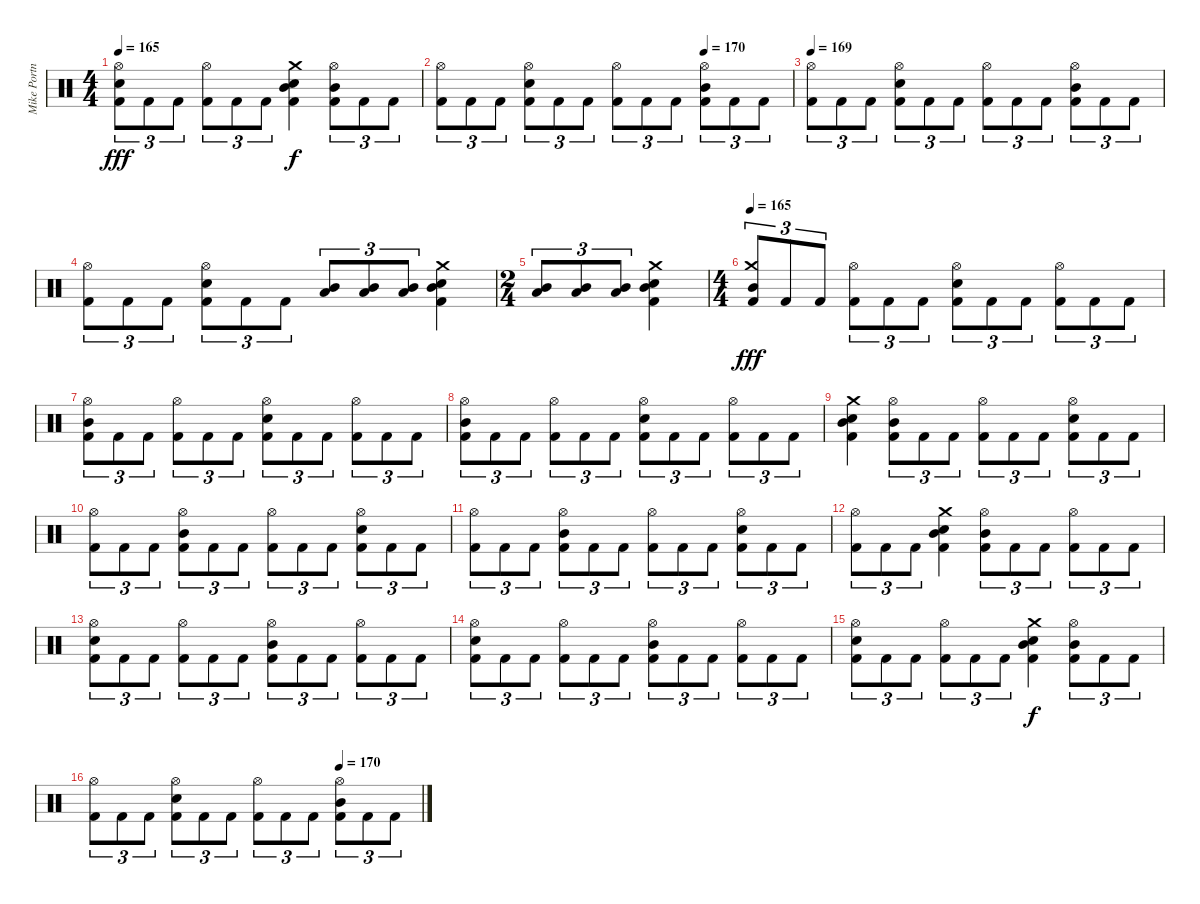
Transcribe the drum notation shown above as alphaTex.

\track ("Mike Portnoy" "Mike Portn") {instrument percussion}
\staff {score}
\articulation defaults
\ts (4 4)
\tempo 165
\clef neutral
\ks c
("Hi-Hat (open)" "Electric Snare (hit)" "Kick (hit) 2").8{tu (3 2) dy fff} "Kick (hit) 2".8{tu (3 2)} "Kick (hit) 2".8{tu (3 2)} ("Hi-Hat (open)" "Kick (hit) 2").8{tu (3 2)} "Kick (hit) 2".8{tu (3 2)} "Kick (hit) 2".8{tu (3 2)} ("Crash medium (hit)" "Mid Tom (hit)" "Electric Snare (hit)" "Kick (hit) 2").4{dy f} ("Hi-Hat (open)" "Mid Tom (hit)" "Kick (hit) 2").8{tu (3 2)} "Kick (hit) 2".8{tu (3 2)} "Kick (hit) 2".8{tu (3 2)} |
\tempo (170 0.75)
("Hi-Hat (open)" "Kick (hit) 2").8{tu (3 2)} "Kick (hit) 2".8{tu (3 2)} "Kick (hit) 2".8{tu (3 2)} ("Hi-Hat (open)" "Electric Snare (hit)" "Kick (hit) 2").8{tu (3 2)} "Kick (hit) 2".8{tu (3 2)} "Kick (hit) 2".8{tu (3 2)} ("Hi-Hat (open)" "Kick (hit) 2").8{tu (3 2)} "Kick (hit) 2".8{tu (3 2)} "Kick (hit) 2".8{tu (3 2)} ("Hi-Hat (open)" "Mid Tom (hit)" "Kick (hit) 2").8{tu (3 2)} "Kick (hit) 2".8{tu (3 2)} "Kick (hit) 2".8{tu (3 2)} |
\tempo 155
\tempo 169
("Hi-Hat (open)" "Kick (hit) 2").8{tu (3 2)} "Kick (hit) 2".8{tu (3 2)} "Kick (hit) 2".8{tu (3 2)} ("Hi-Hat (open)" "Electric Snare (hit)" "Kick (hit) 2").8{tu (3 2)} "Kick (hit) 2".8{tu (3 2)} "Kick (hit) 2".8{tu (3 2)} ("Hi-Hat (open)" "Kick (hit) 2").8{tu (3 2)} "Kick (hit) 2".8{tu (3 2)} "Kick (hit) 2".8{tu (3 2)} ("Hi-Hat (open)" "Mid Tom (hit)" "Kick (hit) 2").8{tu (3 2)} "Kick (hit) 2".8{tu (3 2)} "Kick (hit) 2".8{tu (3 2)} |
("Hi-Hat (open)" "Kick (hit) 2").8{tu (3 2)} "Kick (hit) 2".8{tu (3 2)} "Kick (hit) 2".8{tu (3 2)} ("Hi-Hat (open)" "Electric Snare (hit)" "Kick (hit) 2").8{tu (3 2)} "Kick (hit) 2".8{tu (3 2)} "Kick (hit) 2".8{tu (3 2)} ("Mid Tom (hit)" "Low Tom (hit)").8{tu (3 2)} ("Mid Tom (hit)" "Low Tom (hit)").8{tu (3 2)} ("Mid Tom (hit)" "Low Tom (hit)").8{tu (3 2)} ("Crash medium (hit)" "Mid Tom (hit)" "Electric Snare (hit)" "Kick (hit) 2").4 |
\ts (2 4)
("Mid Tom (hit)" "Low Tom (hit)").8{tu (3 2)} ("Mid Tom (hit)" "Low Tom (hit)").8{tu (3 2)} ("Mid Tom (hit)" "Low Tom (hit)").8{tu (3 2)} ("Crash medium (hit)" "Mid Tom (hit)" "Electric Snare (hit)" "Kick (hit) 2").4 |
\ts (4 4)
\tempo 165
("Crash medium (hit)" "Mid Tom (hit)" "Kick (hit) 2").8{tu (3 2) dy fff} "Kick (hit) 2".8{tu (3 2)} "Kick (hit) 2".8{tu (3 2)} ("Hi-Hat (open)" "Kick (hit) 2").8{tu (3 2)} "Kick (hit) 2".8{tu (3 2)} "Kick (hit) 2".8{tu (3 2)} ("Hi-Hat (open)" "Electric Snare (hit)" "Kick (hit) 2").8{tu (3 2)} "Kick (hit) 2".8{tu (3 2)} "Kick (hit) 2".8{tu (3 2)} ("Hi-Hat (open)" "Kick (hit) 2").8{tu (3 2)} "Kick (hit) 2".8{tu (3 2)} "Kick (hit) 2".8{tu (3 2)} |
("Hi-Hat (open)" "Mid Tom (hit)" "Kick (hit) 2").8{tu (3 2)} "Kick (hit) 2".8{tu (3 2)} "Kick (hit) 2".8{tu (3 2)} ("Hi-Hat (open)" "Kick (hit) 2").8{tu (3 2)} "Kick (hit) 2".8{tu (3 2)} "Kick (hit) 2".8{tu (3 2)} ("Hi-Hat (open)" "Electric Snare (hit)" "Kick (hit) 2").8{tu (3 2)} "Kick (hit) 2".8{tu (3 2)} "Kick (hit) 2".8{tu (3 2)} ("Hi-Hat (open)" "Kick (hit) 2").8{tu (3 2)} "Kick (hit) 2".8{tu (3 2)} "Kick (hit) 2".8{tu (3 2)} |
("Hi-Hat (open)" "Mid Tom (hit)" "Kick (hit) 2").8{tu (3 2)} "Kick (hit) 2".8{tu (3 2)} "Kick (hit) 2".8{tu (3 2)} ("Hi-Hat (open)" "Kick (hit) 2").8{tu (3 2)} "Kick (hit) 2".8{tu (3 2)} "Kick (hit) 2".8{tu (3 2)} ("Hi-Hat (open)" "Electric Snare (hit)" "Kick (hit) 2").8{tu (3 2)} "Kick (hit) 2".8{tu (3 2)} "Kick (hit) 2".8{tu (3 2)} ("Hi-Hat (open)" "Kick (hit) 2").8{tu (3 2)} "Kick (hit) 2".8{tu (3 2)} "Kick (hit) 2".8{tu (3 2)} |
("Crash medium (hit)" "Mid Tom (hit)" "Electric Snare (hit)" "Kick (hit) 2").4 ("Hi-Hat (open)" "Mid Tom (hit)" "Kick (hit) 2").8{tu (3 2)} "Kick (hit) 2".8{tu (3 2)} "Kick (hit) 2".8{tu (3 2)} ("Hi-Hat (open)" "Kick (hit) 2").8{tu (3 2)} "Kick (hit) 2".8{tu (3 2)} "Kick (hit) 2".8{tu (3 2)} ("Hi-Hat (open)" "Electric Snare (hit)" "Kick (hit) 2").8{tu (3 2)} "Kick (hit) 2".8{tu (3 2)} "Kick (hit) 2".8{tu (3 2)} |
("Hi-Hat (open)" "Kick (hit) 2").8{tu (3 2)} "Kick (hit) 2".8{tu (3 2)} "Kick (hit) 2".8{tu (3 2)} ("Hi-Hat (open)" "Mid Tom (hit)" "Kick (hit) 2").8{tu (3 2)} "Kick (hit) 2".8{tu (3 2)} "Kick (hit) 2".8{tu (3 2)} ("Hi-Hat (open)" "Kick (hit) 2").8{tu (3 2)} "Kick (hit) 2".8{tu (3 2)} "Kick (hit) 2".8{tu (3 2)} ("Hi-Hat (open)" "Electric Snare (hit)" "Kick (hit) 2").8{tu (3 2)} "Kick (hit) 2".8{tu (3 2)} "Kick (hit) 2".8{tu (3 2)} |
("Hi-Hat (open)" "Kick (hit) 2").8{tu (3 2)} "Kick (hit) 2".8{tu (3 2)} "Kick (hit) 2".8{tu (3 2)} ("Hi-Hat (open)" "Mid Tom (hit)" "Kick (hit) 2").8{tu (3 2)} "Kick (hit) 2".8{tu (3 2)} "Kick (hit) 2".8{tu (3 2)} ("Hi-Hat (open)" "Kick (hit) 2").8{tu (3 2)} "Kick (hit) 2".8{tu (3 2)} "Kick (hit) 2".8{tu (3 2)} ("Hi-Hat (open)" "Electric Snare (hit)" "Kick (hit) 2").8{tu (3 2)} "Kick (hit) 2".8{tu (3 2)} "Kick (hit) 2".8{tu (3 2)} |
("Hi-Hat (open)" "Kick (hit) 2").8{tu (3 2)} "Kick (hit) 2".8{tu (3 2)} "Kick (hit) 2".8{tu (3 2)} ("Crash medium (hit)" "Mid Tom (hit)" "Electric Snare (hit)" "Kick (hit) 2").4 ("Hi-Hat (open)" "Mid Tom (hit)" "Kick (hit) 2").8{tu (3 2)} "Kick (hit) 2".8{tu (3 2)} "Kick (hit) 2".8{tu (3 2)} ("Hi-Hat (open)" "Kick (hit) 2").8{tu (3 2)} "Kick (hit) 2".8{tu (3 2)} "Kick (hit) 2".8{tu (3 2)} |
("Hi-Hat (open)" "Electric Snare (hit)" "Kick (hit) 2").8{tu (3 2)} "Kick (hit) 2".8{tu (3 2)} "Kick (hit) 2".8{tu (3 2)} ("Hi-Hat (open)" "Kick (hit) 2").8{tu (3 2)} "Kick (hit) 2".8{tu (3 2)} "Kick (hit) 2".8{tu (3 2)} ("Hi-Hat (open)" "Mid Tom (hit)" "Kick (hit) 2").8{tu (3 2)} "Kick (hit) 2".8{tu (3 2)} "Kick (hit) 2".8{tu (3 2)} ("Hi-Hat (open)" "Kick (hit) 2").8{tu (3 2)} "Kick (hit) 2".8{tu (3 2)} "Kick (hit) 2".8{tu (3 2)} |
("Hi-Hat (open)" "Electric Snare (hit)" "Kick (hit) 2").8{tu (3 2)} "Kick (hit) 2".8{tu (3 2)} "Kick (hit) 2".8{tu (3 2)} ("Hi-Hat (open)" "Kick (hit) 2").8{tu (3 2)} "Kick (hit) 2".8{tu (3 2)} "Kick (hit) 2".8{tu (3 2)} ("Hi-Hat (open)" "Mid Tom (hit)" "Kick (hit) 2").8{tu (3 2)} "Kick (hit) 2".8{tu (3 2)} "Kick (hit) 2".8{tu (3 2)} ("Hi-Hat (open)" "Kick (hit) 2").8{tu (3 2)} "Kick (hit) 2".8{tu (3 2)} "Kick (hit) 2".8{tu (3 2)} |
("Hi-Hat (open)" "Electric Snare (hit)" "Kick (hit) 2").8{tu (3 2)} "Kick (hit) 2".8{tu (3 2)} "Kick (hit) 2".8{tu (3 2)} ("Hi-Hat (open)" "Kick (hit) 2").8{tu (3 2)} "Kick (hit) 2".8{tu (3 2)} "Kick (hit) 2".8{tu (3 2)} ("Crash medium (hit)" "Mid Tom (hit)" "Electric Snare (hit)" "Kick (hit) 2").4{dy f} ("Hi-Hat (open)" "Mid Tom (hit)" "Kick (hit) 2").8{tu (3 2)} "Kick (hit) 2".8{tu (3 2)} "Kick (hit) 2".8{tu (3 2)} |
\tempo (170 0.75)
("Hi-Hat (open)" "Kick (hit) 2").8{tu (3 2)} "Kick (hit) 2".8{tu (3 2)} "Kick (hit) 2".8{tu (3 2)} ("Hi-Hat (open)" "Electric Snare (hit)" "Kick (hit) 2").8{tu (3 2)} "Kick (hit) 2".8{tu (3 2)} "Kick (hit) 2".8{tu (3 2)} ("Hi-Hat (open)" "Kick (hit) 2").8{tu (3 2)} "Kick (hit) 2".8{tu (3 2)} "Kick (hit) 2".8{tu (3 2)} ("Hi-Hat (open)" "Mid Tom (hit)" "Kick (hit) 2").8{tu (3 2)} "Kick (hit) 2".8{tu (3 2)} "Kick (hit) 2".8{tu (3 2)}
